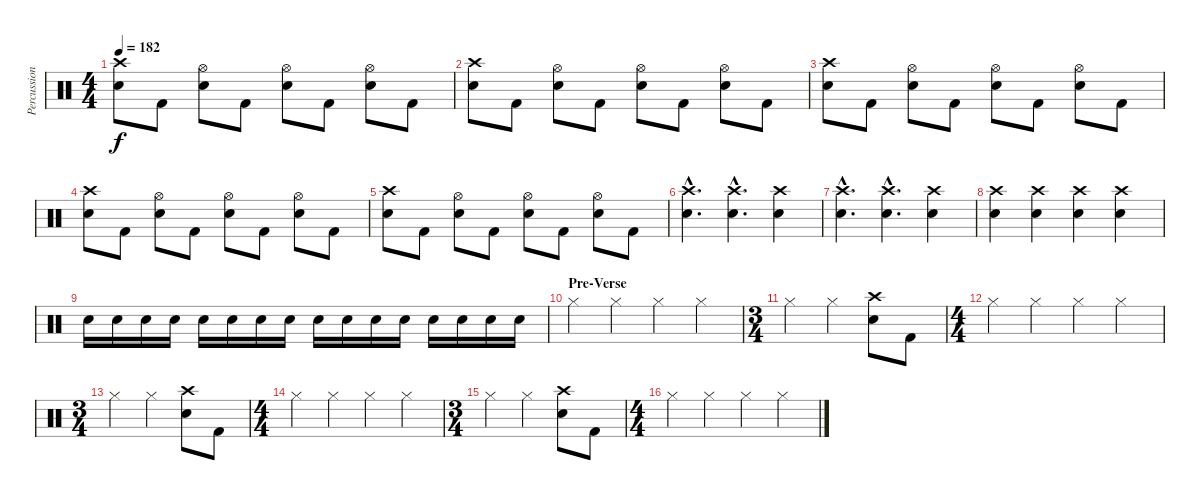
\track ("Percussion" "Percussion") {instrument percussion}
\staff {score}
\articulation defaults
\ts (4 4)
\tempo 182
\clef neutral
\ks c
("Crash high (hit)" "Snare (hit) 2").8{dy f} "Kick (hit) 2".8 ("Hi-Hat (open)" "Snare (hit) 2").8 "Kick (hit) 2".8 ("Hi-Hat (open)" "Snare (hit) 2").8 "Kick (hit) 2".8 ("Hi-Hat (open)" "Snare (hit) 2").8 "Kick (hit) 2".8 |
("Crash high (hit)" "Snare (hit) 2").8 "Kick (hit) 2".8 ("Hi-Hat (open)" "Snare (hit) 2").8 "Kick (hit) 2".8 ("Hi-Hat (open)" "Snare (hit) 2").8 "Kick (hit) 2".8 ("Hi-Hat (open)" "Snare (hit) 2").8 "Kick (hit) 2".8 |
("Crash high (hit)" "Snare (hit) 2").8 "Kick (hit) 2".8 ("Hi-Hat (open)" "Snare (hit) 2").8 "Kick (hit) 2".8 ("Hi-Hat (open)" "Snare (hit) 2").8 "Kick (hit) 2".8 ("Hi-Hat (open)" "Snare (hit) 2").8 "Kick (hit) 2".8 |
("Crash high (hit)" "Snare (hit) 2").8 "Kick (hit) 2".8 ("Hi-Hat (open)" "Snare (hit) 2").8 "Kick (hit) 2".8 ("Hi-Hat (open)" "Snare (hit) 2").8 "Kick (hit) 2".8 ("Hi-Hat (open)" "Snare (hit) 2").8 "Kick (hit) 2".8 |
("Crash high (hit)" "Snare (hit) 2").8 "Kick (hit) 2".8 ("Hi-Hat (open)" "Snare (hit) 2").8 "Kick (hit) 2".8 ("Hi-Hat (open)" "Snare (hit) 2").8 "Kick (hit) 2".8 ("Hi-Hat (open)" "Snare (hit) 2").8 "Kick (hit) 2".8 |
("Crash high (hit)"{hac} "Snare (hit) 2"{hac}).4{d} ("Crash high (hit)"{hac} "Snare (hit) 2"{hac}).4{d} ("Crash high (hit)" "Snare (hit) 2").4 |
("Crash high (hit)"{hac} "Snare (hit) 2"{hac}).4{d} ("Crash high (hit)"{hac} "Snare (hit) 2"{hac}).4{d} ("Crash high (hit)" "Snare (hit) 2").4 |
("Crash high (hit)" "Snare (hit) 2").4 ("Crash high (hit)" "Snare (hit) 2").4 ("Crash high (hit)" "Snare (hit) 2").4 ("Crash high (hit)" "Snare (hit) 2").4 |
"Snare (hit) 2".16 "Snare (hit) 2".16 "Snare (hit) 2".16 "Snare (hit) 2".16 "Snare (hit) 2".16 "Snare (hit) 2".16 "Snare (hit) 2".16 "Snare (hit) 2".16 "Snare (hit) 2".16 "Snare (hit) 2".16 "Snare (hit) 2".16 "Snare (hit) 2".16 "Snare (hit) 2".16 "Snare (hit) 2".16 "Snare (hit) 2".16 "Snare (hit) 2".16 |
\section ("" "Pre-Verse")
"Hi-Hat (closed)".4 "Hi-Hat (closed)".4 "Hi-Hat (closed)".4 "Hi-Hat (closed)".4 |
\ts (3 4)
"Hi-Hat (closed)".4 "Hi-Hat (closed)".4 ("Crash high (hit)" "Snare (hit) 2").8 "Kick (hit) 2".8 |
\ts (4 4)
"Hi-Hat (closed)".4 "Hi-Hat (closed)".4 "Hi-Hat (closed)".4 "Hi-Hat (closed)".4 |
\ts (3 4)
"Hi-Hat (closed)".4 "Hi-Hat (closed)".4 ("Crash high (hit)" "Snare (hit) 2").8 "Kick (hit) 2".8 |
\ts (4 4)
"Hi-Hat (closed)".4 "Hi-Hat (closed)".4 "Hi-Hat (closed)".4 "Hi-Hat (closed)".4 |
\ts (3 4)
"Hi-Hat (closed)".4 "Hi-Hat (closed)".4 ("Crash high (hit)" "Snare (hit) 2").8 "Kick (hit) 2".8 |
\ts (4 4)
"Hi-Hat (closed)".4 "Hi-Hat (closed)".4 "Hi-Hat (closed)".4 "Hi-Hat (closed)".4
